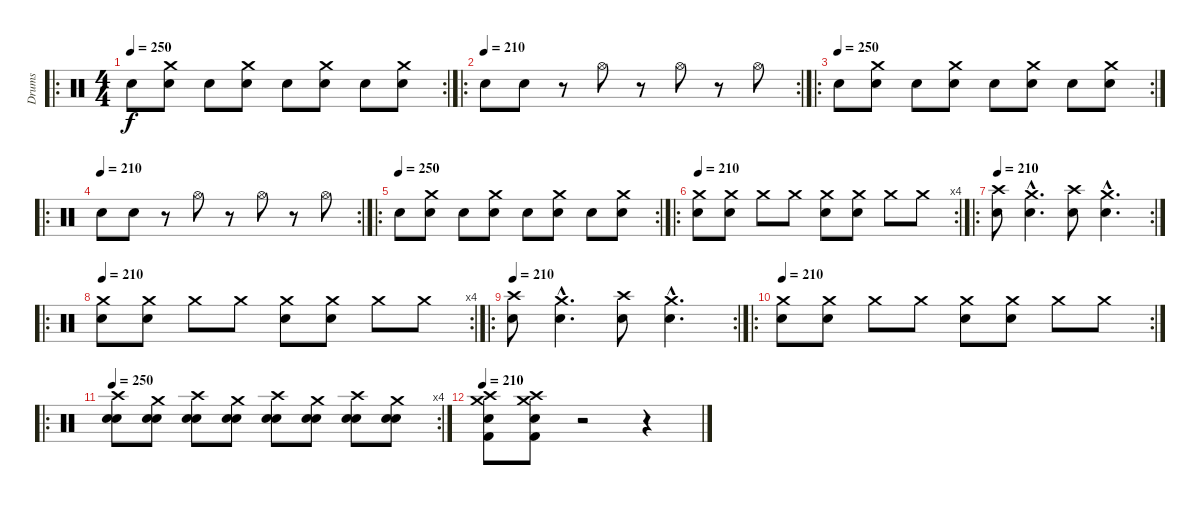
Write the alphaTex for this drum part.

\track ("Drums" "Drums") {instrument percussion}
\staff {score}
\articulation defaults
\ro
\rc 2
\ts (4 4)
\tempo 250
\clef neutral
\ks c "Electric Snare (hit)".8{dy f}
("Electric Snare (hit)" "Crash medium (hit)").8 "Electric Snare (hit)".8 ("Electric Snare (hit)" "Crash medium (hit)").8 "Electric Snare (hit)".8 ("Electric Snare (hit)" "Crash medium (hit)").8 "Electric Snare (hit)".8 ("Electric Snare (hit)" "Crash medium (hit)").8 |
\ro
\rc 2
\tempo (210)
"Snare (hit) 2".8 "Snare (hit) 2".8 r.8 "Hi-Hat (open)".8 r.8 "Hi-Hat (open)".8 r.8 "Hi-Hat (open)".8 |
\ro
\rc 2
\tempo (250)
"Electric Snare (hit)".8 ("Electric Snare (hit)" "Crash medium (hit)").8 "Electric Snare (hit)".8 ("Electric Snare (hit)" "Crash medium (hit)").8 "Electric Snare (hit)".8 ("Electric Snare (hit)" "Crash medium (hit)").8 "Electric Snare (hit)".8 ("Electric Snare (hit)" "Crash medium (hit)").8 |
\ro
\rc 2
\tempo (210)
"Snare (hit) 2".8 "Snare (hit) 2".8 r.8 "Hi-Hat (open)".8 r.8 "Hi-Hat (open)".8 r.8 "Hi-Hat (open)".8 |
\ro
\rc 2
\tempo (250)
"Electric Snare (hit)".8 ("Electric Snare (hit)" "Crash medium (hit)").8 "Electric Snare (hit)".8 ("Electric Snare (hit)" "Crash medium (hit)").8 "Electric Snare (hit)".8 ("Electric Snare (hit)" "Crash medium (hit)").8 "Electric Snare (hit)".8 ("Electric Snare (hit)" "Crash medium (hit)").8 |
\ro
\rc 4
\tempo 210
("Crash medium (hit)" "Snare (hit) 2").8 ("Crash medium (hit)" "Snare (hit) 2").8 "Crash medium (hit)".8 "Crash medium (hit)".8 ("Crash medium (hit)" "Snare (hit) 2").8 ("Crash medium (hit)" "Snare (hit) 2").8 "Crash medium (hit)".8 "Crash medium (hit)".8 |
\ro
\rc 2
\tempo 210
("Crash high (hit)" "Electric Snare (hit)").8 ("Crash medium (hit)"{hac} "Electric Snare (hit)"{hac}).4{d} ("Crash high (hit)" "Electric Snare (hit)").8 ("Crash medium (hit)"{hac} "Electric Snare (hit)"{hac}).4{d} |
\ro
\rc 4
\tempo 210
("Crash medium (hit)" "Snare (hit) 2").8 ("Crash medium (hit)" "Snare (hit) 2").8 "Crash medium (hit)".8 "Crash medium (hit)".8 ("Crash medium (hit)" "Snare (hit) 2").8 ("Crash medium (hit)" "Snare (hit) 2").8 "Crash medium (hit)".8 "Crash medium (hit)".8 |
\ro
\rc 2
\tempo 210
("Crash high (hit)" "Electric Snare (hit)").8 ("Crash medium (hit)"{hac} "Electric Snare (hit)"{hac}).4{d} ("Crash high (hit)" "Electric Snare (hit)").8 ("Crash medium (hit)"{hac} "Electric Snare (hit)"{hac}).4{d} |
\ro
\rc 2
\tempo 210
("Crash medium (hit)" "Snare (hit) 2").8 ("Crash medium (hit)" "Snare (hit) 2").8 "Crash medium (hit)".8 "Crash medium (hit)".8 ("Crash medium (hit)" "Snare (hit) 2").8 ("Crash medium (hit)" "Snare (hit) 2").8 "Crash medium (hit)".8 "Crash medium (hit)".8 |
\ro
\rc 4
\tempo 250
("Crash high (hit)" "Electric Snare (hit)" "Snare (hit) 2").8 ("Electric Snare (hit)" "Crash medium (hit)" "Snare (hit) 2").8 ("Crash high (hit)" "Electric Snare (hit)" "Snare (hit) 2").8 ("Electric Snare (hit)" "Crash medium (hit)" "Snare (hit) 2").8 ("Crash high (hit)" "Electric Snare (hit)" "Snare (hit) 2").8 ("Electric Snare (hit)" "Crash medium (hit)" "Snare (hit) 2").8 ("Crash high (hit)" "Electric Snare (hit)" "Snare (hit) 2").8 ("Electric Snare (hit)" "Crash medium (hit)" "Snare (hit) 2").8 |
\tempo 210
("Kick (hit) 2" "Crash medium (hit)" "Crash high (hit)" "Snare (hit) 2").8 ("Kick (hit) 2" "Crash medium (hit)" "Crash high (hit)" "Snare (hit) 2").8 r.2 r.4
